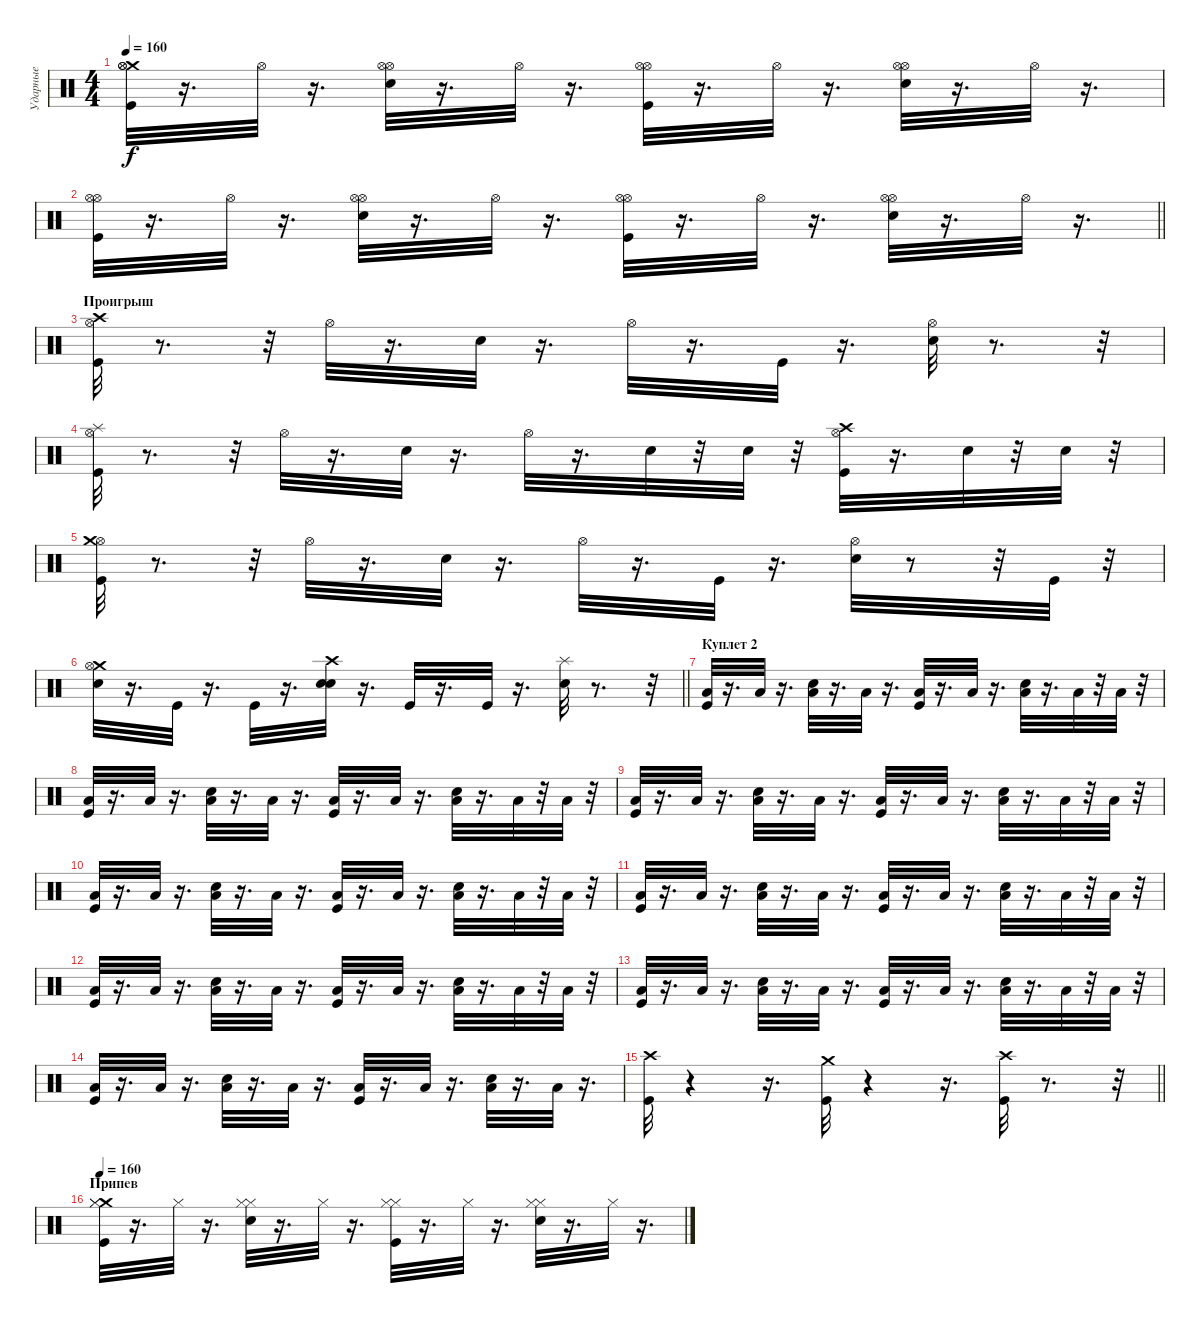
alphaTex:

\track ("Ударные" "Ударные") {instrument percussion}
\staff {score}
\articulation defaults
\ts (4 4)
\tempo 160
\clef neutral
\ks c
("Crash medium (hit)" "Kick (hit)" "Hi-Hat (open)" "Hi-Hat (open)").32{dy f} r.16{d} "Hi-Hat (open)".32 r.16{d} ("Hi-Hat (open)" "Hi-Hat (open)" "Snare (hit) 2").32 r.16{d} "Hi-Hat (open)".32 r.16{d} ("Kick (hit)" "Hi-Hat (open)" "Hi-Hat (open)").32 r.16{d} "Hi-Hat (open)".32 r.16{d} ("Snare (hit) 2" "Hi-Hat (open)" "Hi-Hat (open)").32 r.16{d} "Hi-Hat (open)".32 r.16{d} |
\barLineRight lightlight
("Kick (hit)" "Hi-Hat (open)" "Hi-Hat (open)").32 r.16{d} "Hi-Hat (open)".32 r.16{d} ("Hi-Hat (open)" "Snare (hit) 2" "Hi-Hat (open)").32 r.16{d} "Hi-Hat (open)".32 r.16{d} ("Kick (hit)" "Hi-Hat (open)" "Hi-Hat (open)").32 r.16{d} "Hi-Hat (open)".32 r.16{d} ("Snare (hit) 2" "Hi-Hat (open)" "Hi-Hat (open)").32 r.16{d} "Hi-Hat (open)".32 r.16{d} |
\section ("" "Проигрыш")
("Hi-Hat (open)" "Kick (hit)" "Crash high (hit)").32 r.8{d} r.32 "Hi-Hat (open)".32 r.16{d} "Snare (hit) 2".32 r.16{d} "Hi-Hat (open)".32 r.16{d} "Kick (hit)".32 r.16{d} ("Hi-Hat (open)" "Snare (hit) 2").32 r.8{d} r.32 |
("Hi-Hat (open)" "Splash (hit)" "Kick (hit)").32 r.8{d} r.32 "Hi-Hat (open)".32 r.16{d} "Snare (hit) 2".32 r.16{d} "Hi-Hat (open)".32 r.16{d} "Snare (hit) 2".32 r.32 "Snare (hit) 2".32 r.32 ("Hi-Hat (open)" "Crash high (hit)" "Kick (hit)").32 r.16{d} "Snare (hit) 2".32 r.32 "Snare (hit) 2".32 r.32 |
("Hi-Hat (open)" "Kick (hit)" "Crash medium (hit)").32 r.8{d} r.32 "Hi-Hat (open)".32 r.16{d} "Snare (hit) 2".32 r.16{d} "Hi-Hat (open)".32 r.16{d} "Kick (hit)".32 r.16{d} ("Snare (hit) 2" "Hi-Hat (open)").32 r.8 r.32 "Kick (hit)".32 r.32 |
\barLineRight lightlight
("Crash medium (hit)" "Snare (hit) 2" "Hi-Hat (open)").32 r.16{d} "Kick (hit)".32 r.16{d} "Kick (hit)".32 r.16{d} ("Crash high (hit)" "Snare (hit) 2" "Snare (hit) 2").32 r.16{d} "Kick (hit)".32 r.16{d} "Kick (hit)".32 r.16{d} ("Splash (hit)" "Snare (hit) 2").32 r.8{d} r.32 |
\section ("" "Куплет 2")
("Kick (hit)" "Low Floor Tom (hit)").32 r.16{d} "Low Floor Tom (hit)".32 r.16{d} ("Low Floor Tom (hit)" "Snare (hit) 2").32 r.16{d} "Low Floor Tom (hit)".32 r.16{d} ("Kick (hit)" "Low Floor Tom (hit)").32 r.16{d} "Low Floor Tom (hit)".32 r.16{d} ("Low Floor Tom (hit)" "Snare (hit) 2").32 r.16{d} "Low Floor Tom (hit)".32 r.32 "Low Floor Tom (hit)".32 r.32 |
("Kick (hit)" "Low Floor Tom (hit)").32 r.16{d} "Low Floor Tom (hit)".32 r.16{d} ("Low Floor Tom (hit)" "Snare (hit) 2").32 r.16{d} "Low Floor Tom (hit)".32 r.16{d} ("Low Floor Tom (hit)" "Kick (hit)").32 r.16{d} "Low Floor Tom (hit)".32 r.16{d} ("Snare (hit) 2" "Low Floor Tom (hit)").32 r.16{d} "Low Floor Tom (hit)".32 r.32 "Low Floor Tom (hit)".32 r.32 |
("Kick (hit)" "Low Floor Tom (hit)").32 r.16{d} "Low Floor Tom (hit)".32 r.16{d} ("Low Floor Tom (hit)" "Snare (hit) 2").32 r.16{d} "Low Floor Tom (hit)".32 r.16{d} ("Kick (hit)" "Low Floor Tom (hit)").32 r.16{d} "Low Floor Tom (hit)".32 r.16{d} ("Low Floor Tom (hit)" "Snare (hit) 2").32 r.16{d} "Low Floor Tom (hit)".32 r.32 "Low Floor Tom (hit)".32 r.32 |
("Kick (hit)" "Low Floor Tom (hit)").32 r.16{d} "Low Floor Tom (hit)".32 r.16{d} ("Low Floor Tom (hit)" "Snare (hit) 2").32 r.16{d} "Low Floor Tom (hit)".32 r.16{d} ("Low Floor Tom (hit)" "Kick (hit)").32 r.16{d} "Low Floor Tom (hit)".32 r.16{d} ("Snare (hit) 2" "Low Floor Tom (hit)").32 r.16{d} "Low Floor Tom (hit)".32 r.32 "Low Floor Tom (hit)".32 r.32 |
("Kick (hit)" "Low Floor Tom (hit)").32 r.16{d} "Low Floor Tom (hit)".32 r.16{d} ("Low Floor Tom (hit)" "Snare (hit) 2").32 r.16{d} "Low Floor Tom (hit)".32 r.16{d} ("Kick (hit)" "Low Floor Tom (hit)").32 r.16{d} "Low Floor Tom (hit)".32 r.16{d} ("Low Floor Tom (hit)" "Snare (hit) 2").32 r.16{d} "Low Floor Tom (hit)".32 r.32 "Low Floor Tom (hit)".32 r.32 |
("Kick (hit)" "Low Floor Tom (hit)").32 r.16{d} "Low Floor Tom (hit)".32 r.16{d} ("Low Floor Tom (hit)" "Snare (hit) 2").32 r.16{d} "Low Floor Tom (hit)".32 r.16{d} ("Low Floor Tom (hit)" "Kick (hit)").32 r.16{d} "Low Floor Tom (hit)".32 r.16{d} ("Snare (hit) 2" "Low Floor Tom (hit)").32 r.16{d} "Low Floor Tom (hit)".32 r.32 "Low Floor Tom (hit)".32 r.32 |
("Kick (hit)" "Low Floor Tom (hit)").32 r.16{d} "Low Floor Tom (hit)".32 r.16{d} ("Low Floor Tom (hit)" "Snare (hit) 2").32 r.16{d} "Low Floor Tom (hit)".32 r.16{d} ("Kick (hit)" "Low Floor Tom (hit)").32 r.16{d} "Low Floor Tom (hit)".32 r.16{d} ("Low Floor Tom (hit)" "Snare (hit) 2").32 r.16{d} "Low Floor Tom (hit)".32 r.32 "Low Floor Tom (hit)".32 r.32 |
("Kick (hit)" "Low Floor Tom (hit)").32 r.16{d} "Low Floor Tom (hit)".32 r.16{d} ("Low Floor Tom (hit)" "Snare (hit) 2").32 r.16{d} "Low Floor Tom (hit)".32 r.16{d} ("Low Floor Tom (hit)" "Kick (hit)").32 r.16{d} "Low Floor Tom (hit)".32 r.16{d} ("Snare (hit) 2" "Low Floor Tom (hit)").32 r.16{d} "Low Floor Tom (hit)".32 r.16{d} |
\barLineRight lightlight
("Crash high (hit)" "Kick (hit)").32 r.4 r.16{d} ("Kick (hit)" "Crash medium (hit)").32 r.4 r.16{d} ("Crash high (hit)" "Kick (hit)").32 r.8{d} r.32 |
\section ("" "Припев")
\tempo 160
("Crash medium (hit)" "Hi-Hat (closed)" "Hi-Hat (closed)" "Kick (hit)").32 r.16{d} "Hi-Hat (closed)".32 r.16{d} ("Hi-Hat (closed)" "Hi-Hat (closed)" "Snare (hit) 2").32 r.16{d} "Hi-Hat (closed)".32 r.16{d} ("Hi-Hat (closed)" "Hi-Hat (closed)" "Kick (hit)").32 r.16{d} "Hi-Hat (closed)".32 r.16{d} ("Hi-Hat (closed)" "Hi-Hat (closed)" "Snare (hit) 2").32 r.16{d} "Hi-Hat (closed)".32 r.16{d}
